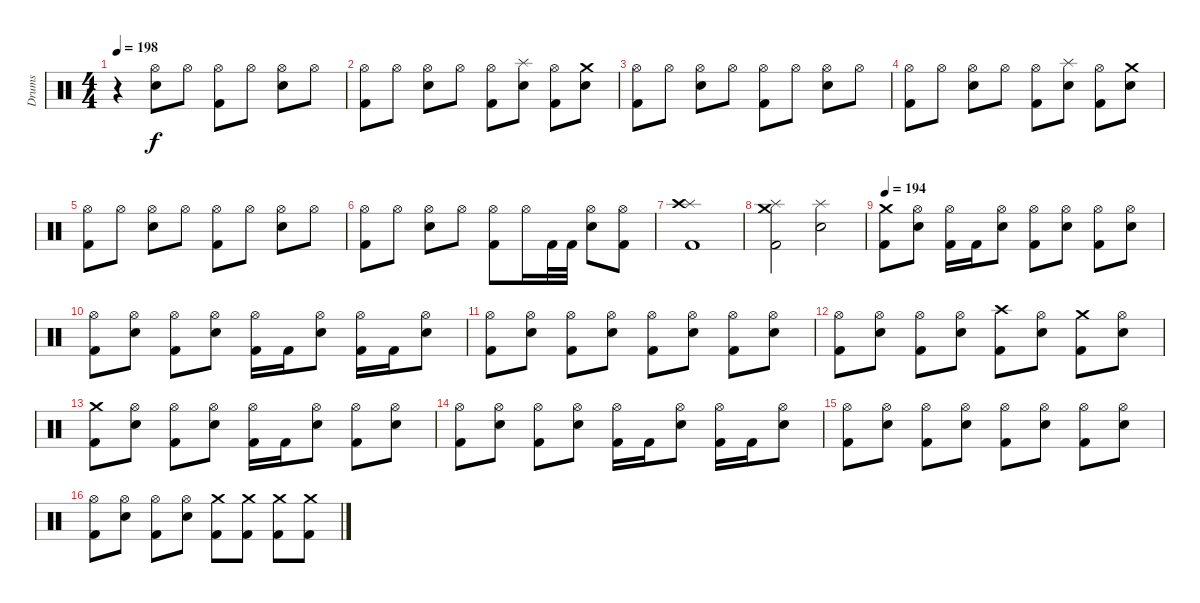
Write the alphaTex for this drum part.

\track ("Drums" "Drums") {instrument percussion}
\staff {score}
\articulation defaults
\ts (4 4)
\tempo 198
\clef neutral
\ks c
r.4{dy f} ("Hi-Hat (open)" "Electric Snare (hit)").8 "Hi-Hat (open)".8 ("Hi-Hat (open)" "Kick (hit) 2").8 "Hi-Hat (open)".8 ("Hi-Hat (open)" "Electric Snare (hit)").8 "Hi-Hat (open)".8 |
("Hi-Hat (open)" "Kick (hit) 2").8 "Hi-Hat (open)".8 ("Hi-Hat (open)" "Electric Snare (hit)").8 "Hi-Hat (open)".8 ("Hi-Hat (open)" "Kick (hit) 2").8 ("Splash (hit)" "Electric Snare (hit)").8 ("Hi-Hat (open)" "Kick (hit) 2").8 ("Crash medium (hit)" "Electric Snare (hit)").8 |
("Hi-Hat (open)" "Kick (hit) 2").8 "Hi-Hat (open)".8 ("Hi-Hat (open)" "Electric Snare (hit)").8 "Hi-Hat (open)".8 ("Hi-Hat (open)" "Kick (hit) 2").8 "Hi-Hat (open)".8 ("Hi-Hat (open)" "Electric Snare (hit)").8 "Hi-Hat (open)".8 |
("Hi-Hat (open)" "Kick (hit) 2").8 "Hi-Hat (open)".8 ("Hi-Hat (open)" "Electric Snare (hit)").8 "Hi-Hat (open)".8 ("Hi-Hat (open)" "Kick (hit) 2").8 ("Splash (hit)" "Electric Snare (hit)").8 ("Hi-Hat (open)" "Kick (hit) 2").8 ("Crash medium (hit)" "Electric Snare (hit)").8 |
("Hi-Hat (open)" "Kick (hit) 2").8 "Hi-Hat (open)".8 ("Hi-Hat (open)" "Electric Snare (hit)").8 "Hi-Hat (open)".8 ("Hi-Hat (open)" "Kick (hit) 2").8 "Hi-Hat (open)".8 ("Hi-Hat (open)" "Electric Snare (hit)").8 "Hi-Hat (open)".8 |
("Hi-Hat (open)" "Kick (hit) 2").8 "Hi-Hat (open)".8 ("Hi-Hat (open)" "Electric Snare (hit)").8 "Hi-Hat (open)".8 ("Hi-Hat (open)" "Kick (hit) 2").8 "Hi-Hat (open)".16 "Kick (hit) 2".32 "Kick (hit) 2".32 ("Hi-Hat (open)" "Electric Snare (hit)").8 ("Hi-Hat (open)" "Kick (hit) 2").8 |
("Splash (hit)" "Crash high (hit)" "Kick (hit) 2").1 |
("Crash medium (hit)" "Splash (hit)" "Kick (hit) 2").2 ("Splash (hit)" "Electric Snare (hit)").2 |
\tempo 194
("Crash medium (hit)" "Kick (hit) 2").8 ("Hi-Hat (open)" "Electric Snare (hit)").8 ("Hi-Hat (open)" "Kick (hit) 2").16 "Kick (hit) 2".16 ("Hi-Hat (open)" "Electric Snare (hit)").8 ("Hi-Hat (open)" "Kick (hit) 2").8 ("Hi-Hat (open)" "Electric Snare (hit)").8 ("Hi-Hat (open)" "Kick (hit) 2").8 ("Hi-Hat (open)" "Electric Snare (hit)").8 |
("Hi-Hat (open)" "Kick (hit) 2").8 ("Hi-Hat (open)" "Electric Snare (hit)").8 ("Hi-Hat (open)" "Kick (hit) 2").8 ("Hi-Hat (open)" "Electric Snare (hit)").8 ("Hi-Hat (open)" "Kick (hit) 2").16 "Kick (hit) 2".16 ("Hi-Hat (open)" "Electric Snare (hit)").8 ("Hi-Hat (open)" "Kick (hit) 2").16 "Kick (hit) 2".16 ("Hi-Hat (open)" "Electric Snare (hit)").8 |
("Hi-Hat (open)" "Kick (hit) 2").8 ("Hi-Hat (open)" "Electric Snare (hit)").8 ("Hi-Hat (open)" "Kick (hit) 2").8 ("Hi-Hat (open)" "Electric Snare (hit)").8 ("Hi-Hat (open)" "Kick (hit) 2").8 ("Hi-Hat (open)" "Electric Snare (hit)").8 ("Hi-Hat (open)" "Kick (hit) 2").8 ("Hi-Hat (open)" "Electric Snare (hit)").8 |
("Hi-Hat (open)" "Kick (hit) 2").8 ("Hi-Hat (open)" "Electric Snare (hit)").8 ("Hi-Hat (open)" "Kick (hit) 2").8 ("Hi-Hat (open)" "Electric Snare (hit)").8 ("Crash high (hit)" "Kick (hit) 2").8 ("Hi-Hat (open)" "Electric Snare (hit)").8 ("Crash medium (hit)" "Kick (hit) 2").8 ("Hi-Hat (open)" "Electric Snare (hit)").8 |
("Crash medium (hit)" "Kick (hit) 2").8 ("Hi-Hat (open)" "Electric Snare (hit)").8 ("Hi-Hat (open)" "Kick (hit) 2").8 ("Hi-Hat (open)" "Electric Snare (hit)").8 ("Hi-Hat (open)" "Kick (hit) 2").16 "Kick (hit) 2".16 ("Hi-Hat (open)" "Electric Snare (hit)").8 ("Hi-Hat (open)" "Kick (hit) 2").8 ("Hi-Hat (open)" "Electric Snare (hit)").8 |
("Hi-Hat (open)" "Kick (hit) 2").8 ("Hi-Hat (open)" "Electric Snare (hit)").8 ("Hi-Hat (open)" "Kick (hit) 2").8 ("Hi-Hat (open)" "Electric Snare (hit)").8 ("Hi-Hat (open)" "Kick (hit) 2").16 "Kick (hit) 2".16 ("Hi-Hat (open)" "Electric Snare (hit)").8 ("Hi-Hat (open)" "Kick (hit) 2").16 "Kick (hit) 2".16 ("Hi-Hat (open)" "Electric Snare (hit)").8 |
("Hi-Hat (open)" "Kick (hit) 2").8 ("Hi-Hat (open)" "Electric Snare (hit)").8 ("Hi-Hat (open)" "Kick (hit) 2").8 ("Hi-Hat (open)" "Electric Snare (hit)").8 ("Hi-Hat (open)" "Kick (hit) 2").8 ("Hi-Hat (open)" "Electric Snare (hit)").8 ("Hi-Hat (open)" "Kick (hit) 2").8 ("Hi-Hat (open)" "Electric Snare (hit)").8 |
("Hi-Hat (open)" "Kick (hit) 2").8 ("Hi-Hat (open)" "Electric Snare (hit)").8 ("Hi-Hat (open)" "Kick (hit) 2").8 ("Hi-Hat (open)" "Electric Snare (hit)").8 ("Crash medium (hit)" "Kick (hit) 2").8 ("Crash medium (hit)" "Kick (hit) 2").8 ("Crash medium (hit)" "Kick (hit) 2").8 ("Crash medium (hit)" "Kick (hit) 2").8
